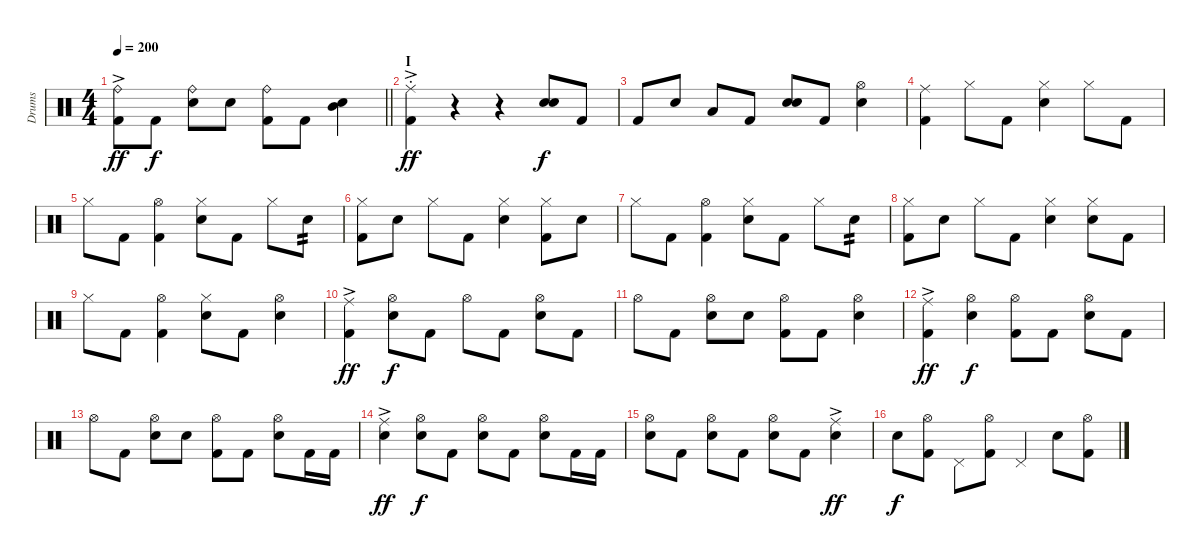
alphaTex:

\track ("Drums" "Drums") {instrument percussion}
\staff {score}
\articulation defaults
\ts (4 4)
\tempo 200
\clef neutral
\barLineRight lightlight
\ks c
("Ride (bell)"{ac} "Kick (hit) 2").8{dy ff} "Kick (hit) 2".8{dy f} ("Ride (bell)" "Snare (hit) 2").8 "Snare (hit) 2".8 ("Ride (bell)" "Kick (hit) 2").8 "Kick (hit) 2".8 ("Mid Tom (hit)" "Snare (hit) 2").4 |
\section ("" "I")
("Ride (middle)"{ac st} "Kick (hit) 2").4{dy ff} r.4 r.4 ("Snare (hit) 2" "Snare (hit) 2").8{dy f} "Kick (hit) 2".8 |
"Kick (hit) 2".8 "Snare (hit) 2".8 "Low Tom (hit)".8 "Kick (hit) 2".8 ("Snare (hit) 2" "Snare (hit) 2").8 "Kick (hit) 2".8 ("Hi-Hat (open)" "Snare (hit) 2").4 |
("Ride (middle)" "Kick (hit) 2").4 "Hi-Hat (closed)".8 "Kick (hit) 2".8 ("Hi-Hat (closed)" "Snare (hit) 2").4 "Hi-Hat (closed)".8 "Kick (hit) 2".8 |
"Hi-Hat (closed)".8 "Kick (hit) 2".8 ("Hi-Hat (open)" "Kick (hit) 2").4 ("Hi-Hat (closed)" "Snare (hit) 2").8 "Kick (hit) 2".8 "Hi-Hat (closed)".8 "Snare (hit) 2".8{tp 2} |
("Hi-Hat (closed)" "Kick (hit) 2").8 "Snare (hit) 2".8 "Hi-Hat (closed)".8 "Kick (hit) 2".8 ("Hi-Hat (closed)" "Snare (hit) 2").4 ("Hi-Hat (closed)" "Kick (hit) 2").8 "Snare (hit) 2".8 |
"Hi-Hat (closed)".8 "Kick (hit) 2".8 ("Hi-Hat (open)" "Kick (hit) 2").4 ("Hi-Hat (closed)" "Snare (hit) 2").8 "Kick (hit) 2".8 "Hi-Hat (closed)".8 "Snare (hit) 2".8{tp 2} |
("Hi-Hat (closed)" "Kick (hit) 2").8 "Snare (hit) 2".8 "Hi-Hat (closed)".8 "Kick (hit) 2".8 ("Hi-Hat (closed)" "Snare (hit) 2").4 ("Hi-Hat (closed)" "Snare (hit) 2").8 "Kick (hit) 2".8 |
"Hi-Hat (closed)".8 "Kick (hit) 2".8 ("Hi-Hat (open)" "Kick (hit) 2").4 ("Hi-Hat (closed)" "Snare (hit) 2").8 "Kick (hit) 2".8 ("Hi-Hat (open)" "Snare (hit) 2").4 |
("Ride (middle)"{ac} "Kick (hit) 2").4{dy ff} ("Hi-Hat (open)" "Snare (hit) 2").8{dy f} "Kick (hit) 2".8 "Hi-Hat (open)".8 "Kick (hit) 2".8 ("Hi-Hat (open)" "Snare (hit) 2").8 "Kick (hit) 2".8 |
"Hi-Hat (open)".8 "Kick (hit) 2".8 ("Hi-Hat (open)" "Snare (hit) 2").8 "Snare (hit) 2".8 ("Hi-Hat (open)" "Kick (hit) 2").8 "Kick (hit) 2".8 ("Hi-Hat (open)" "Snare (hit) 2").4 |
("Ride (middle)"{ac} "Kick (hit) 2").4{dy ff} ("Hi-Hat (open)" "Snare (hit) 2").4{dy f} ("Hi-Hat (open)" "Kick (hit) 2").8 "Kick (hit) 2".8 ("Hi-Hat (open)" "Snare (hit) 2").8 "Kick (hit) 2".8 |
"Hi-Hat (open)".8 "Kick (hit) 2".8 ("Hi-Hat (open)" "Snare (hit) 2").8 "Snare (hit) 2".8 ("Hi-Hat (open)" "Kick (hit) 2").8 "Kick (hit) 2".8 ("Hi-Hat (open)" "Snare (hit) 2").8 "Kick (hit) 2".16 "Kick (hit) 2".16 |
("Ride (middle)"{ac} "Snare (hit) 2").4{dy ff} ("Hi-Hat (open)" "Snare (hit) 2").8{dy f} "Kick (hit) 2".8 ("Hi-Hat (open)" "Snare (hit) 2").8 "Kick (hit) 2".8 ("Hi-Hat (open)" "Snare (hit) 2").8 "Kick (hit) 2".16 "Kick (hit) 2".16 |
("Hi-Hat (open)" "Snare (hit) 2").8 "Kick (hit) 2".8 ("Hi-Hat (open)" "Snare (hit) 2").8 "Kick (hit) 2".8 ("Hi-Hat (open)" "Snare (hit) 2").8 "Kick (hit) 2".8 ("Ride (middle)"{ac} "Snare (hit) 2").4{dy ff} |
"Snare (hit) 2".8{dy f} ("Hi-Hat (open)" "Kick (hit) 2").8 "Pedal Hi-Hat (hit)".8 ("Hi-Hat (open)" "Kick (hit) 2").8 "Pedal Hi-Hat (hit)".4 "Snare (hit) 2".8 ("Hi-Hat (open)" "Kick (hit) 2").8
